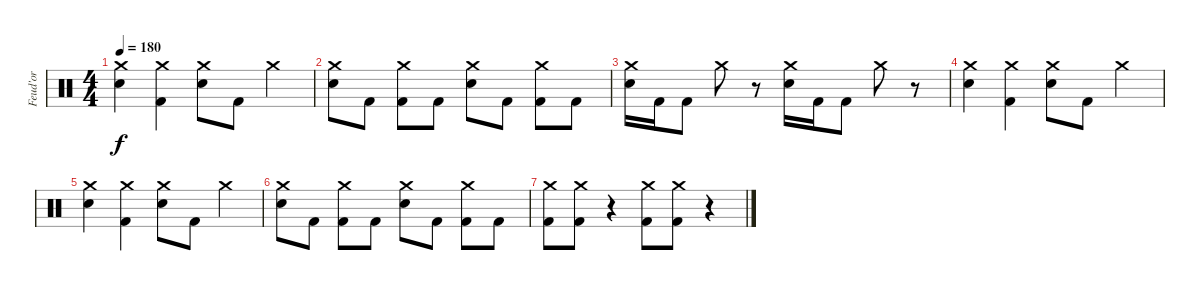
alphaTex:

\track ("Feud'or" "Feud'or") {instrument percussion}
\staff {score}
\articulation defaults
\ts (4 4)
\tempo 180
\clef neutral
\ks c
("Crash medium (hit)" "Snare (hit) 2").4{dy f} ("Crash medium (hit)" "Kick (hit) 2").4 ("Crash medium (hit)" "Snare (hit) 2").8 "Kick (hit) 2".8 "Crash medium (hit)".4 |
("Crash medium (hit)" "Snare (hit) 2").8 "Kick (hit) 2".8 ("Crash medium (hit)" "Kick (hit) 2").8 "Kick (hit) 2".8 ("Crash medium (hit)" "Snare (hit) 2").8 "Kick (hit) 2".8 ("Crash medium (hit)" "Kick (hit) 2").8 "Kick (hit) 2".8 |
("Crash medium (hit)" "Snare (hit) 2").16 "Kick (hit) 2".16 "Kick (hit) 2".8 "Crash medium (hit)".8 r.8 ("Crash medium (hit)" "Snare (hit) 2").16 "Kick (hit) 2".16 "Kick (hit) 2".8 "Crash medium (hit)".8 r.8 |
("Crash medium (hit)" "Snare (hit) 2").4 ("Crash medium (hit)" "Kick (hit) 2").4 ("Crash medium (hit)" "Snare (hit) 2").8 "Kick (hit) 2".8 "Crash medium (hit)".4 |
("Crash medium (hit)" "Snare (hit) 2").4 ("Crash medium (hit)" "Kick (hit) 2").4 ("Crash medium (hit)" "Snare (hit) 2").8 "Kick (hit) 2".8 "Crash medium (hit)".4 |
("Crash medium (hit)" "Snare (hit) 2").8 "Kick (hit) 2".8 ("Crash medium (hit)" "Kick (hit) 2").8 "Kick (hit) 2".8 ("Crash medium (hit)" "Snare (hit) 2").8 "Kick (hit) 2".8 ("Crash medium (hit)" "Kick (hit) 2").8 "Kick (hit) 2".8 |
("Crash medium (hit)" "Kick (hit) 2").8 ("Crash medium (hit)" "Kick (hit) 2").8 r.4 ("Crash medium (hit)" "Kick (hit) 2").8 ("Crash medium (hit)" "Kick (hit) 2").8 r.4
